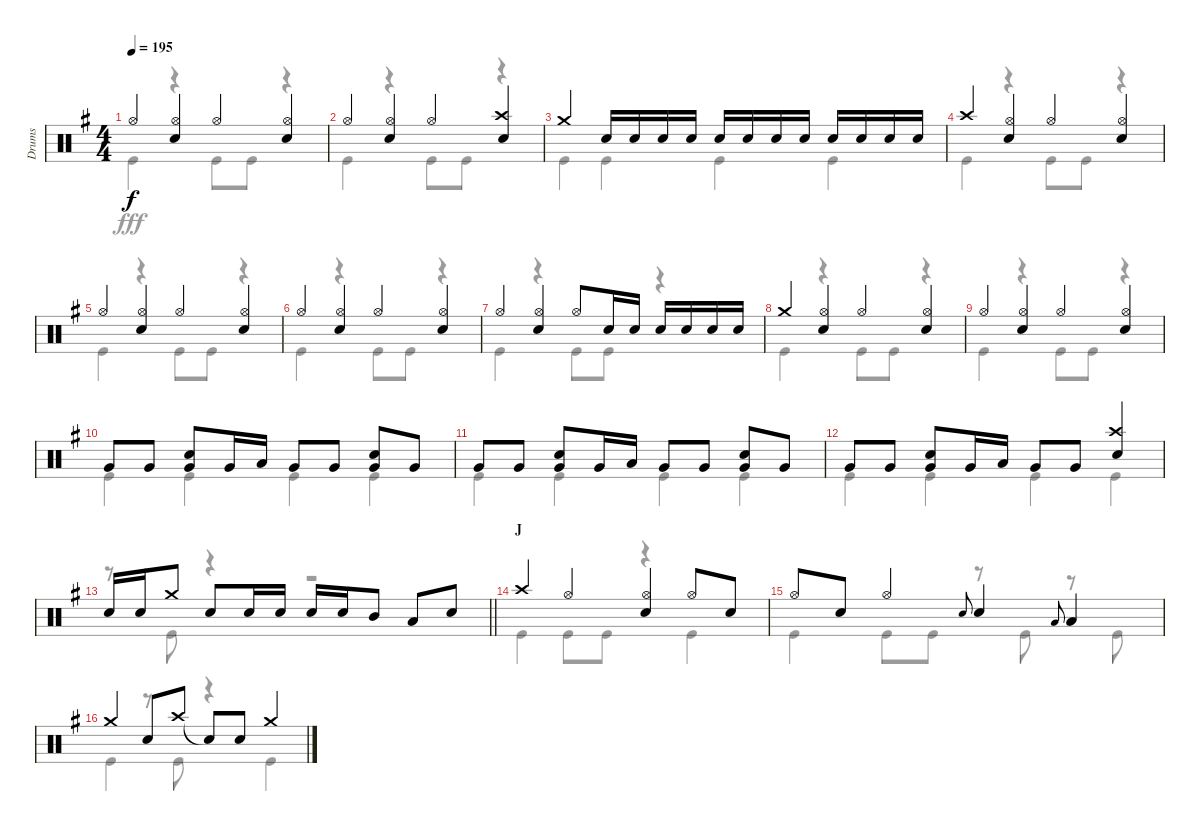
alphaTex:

\track ("Drums" "Drums") {instrument percussion}
\staff {score}
\articulation defaults
\voice
\ts (4 4)
\tempo 195
\clef neutral
\ks g "Hi-Hat (open)".4{dy f}
("Hi-Hat (open)" "Snare (hit) 2").4 "Hi-Hat (open)".4 ("Hi-Hat (open)" "Snare (hit) 2").4 |
"Hi-Hat (open)".4 ("Hi-Hat (open)" "Snare (hit) 2").4 "Hi-Hat (open)".4 ("Crash high (hit)" "Snare (hit) 2").4 |
"Crash medium (hit)".4 "Snare (hit) 2".16 "Snare (hit) 2".16 "Snare (hit) 2".16 "Snare (hit) 2".16 "Snare (hit) 2".16 "Snare (hit) 2".16 "Snare (hit) 2".16 "Snare (hit) 2".16 "Snare (hit) 2".16 "Snare (hit) 2".16 "Snare (hit) 2".16 "Snare (hit) 2".16 |
"Crash high (hit)".4 ("Hi-Hat (open)" "Snare (hit) 2").4 "Hi-Hat (open)".4 ("Hi-Hat (open)" "Snare (hit) 2").4 |
"Hi-Hat (open)".4 ("Hi-Hat (open)" "Snare (hit) 2").4 "Hi-Hat (open)".4 ("Hi-Hat (open)" "Snare (hit) 2").4 |
"Hi-Hat (open)".4 ("Hi-Hat (open)" "Snare (hit) 2").4 "Hi-Hat (open)".4 ("Hi-Hat (open)" "Snare (hit) 2").4 |
"Hi-Hat (open)".4 ("Hi-Hat (open)" "Snare (hit) 2").4 "Hi-Hat (open)".8 "Snare (hit) 2".16 "Snare (hit) 2".16 "Snare (hit) 2".16 "Snare (hit) 2".16 "Snare (hit) 2".16 "Snare (hit) 2".16 |
"Crash medium (hit)".4 ("Hi-Hat (open)" "Snare (hit) 2").4 "Hi-Hat (open)".4 ("Hi-Hat (open)" "Snare (hit) 2").4 |
"Hi-Hat (open)".4 ("Hi-Hat (open)" "Snare (hit) 2").4 "Hi-Hat (open)".4 ("Hi-Hat (open)" "Snare (hit) 2").4 |
"Very Low Tom (hit)".8 "Very Low Tom (hit)".8 ("Snare (hit) 2" "Very Low Tom (hit)").8 "Very Low Tom (hit)".16 "Low Tom (hit)".16 "Very Low Tom (hit)".8 "Very Low Tom (hit)".8 ("Snare (hit) 2" "Very Low Tom (hit)").8 "Very Low Tom (hit)".8 |
"Very Low Tom (hit)".8 "Very Low Tom (hit)".8 ("Snare (hit) 2" "Very Low Tom (hit)").8 "Very Low Tom (hit)".16 "Low Tom (hit)".16 "Very Low Tom (hit)".8 "Very Low Tom (hit)".8 ("Snare (hit) 2" "Very Low Tom (hit)").8 "Very Low Tom (hit)".8 |
"Very Low Tom (hit)".8 "Very Low Tom (hit)".8 ("Snare (hit) 2" "Very Low Tom (hit)").8 "Very Low Tom (hit)".16 "Low Tom (hit)".16 "Very Low Tom (hit)".8 "Very Low Tom (hit)".8 ("Crash high (hit)" "Snare (hit) 2").4 |
\barLineRight lightlight "Snare (hit) 2".16 "Snare (hit) 2".16 "Crash medium (hit)".8 "Snare (hit) 2".8 "Snare (hit) 2".16 "Snare (hit) 2".16 "Snare (hit) 2".16 "Snare (hit) 2".16 "Mid Tom (hit)".8 "Low Tom (hit)".8 "Snare (hit) 2".8
|
\section ("" "J")
"Crash high (hit)".4 "Hi-Hat (open)".4 ("Hi-Hat (open)" "Snare (hit) 2").4 "Hi-Hat (open)".8 "Snare (hit) 2".8 |
"Hi-Hat (open)".8 "Snare (hit) 2".8 "Hi-Hat (open)".4 "Snare (hit) 2".8{gr onbeat} "Snare (hit) 2".4 "Low Tom (hit)".8{gr onbeat} "Low Tom (hit)".4 |
"Crash medium (hit)".4 "Snare (hit) 2".8 "Crash high (hit)".8 "Snare (hit)"{t}.8 "Snare (hit) 2".8 "Crash medium (hit)".4
\voice
\clef neutral
\ottava regular
\simile none
\ks g "Kick (hit)".4{dy fff}
r.4 "Kick (hit)".8 "Kick (hit)".8 r.4 |
"Kick (hit)".4 r.4 "Kick (hit)".8 "Kick (hit)".8 r.4 |
"Kick (hit)".4 "Kick (hit)".4 "Kick (hit)".4 "Kick (hit)".4 |
"Kick (hit)".4 r.4 "Kick (hit)".8 "Kick (hit)".8 r.4 |
"Kick (hit)".4 r.4 "Kick (hit)".8 "Kick (hit)".8 r.4 |
"Kick (hit)".4 r.4 "Kick (hit)".8 "Kick (hit)".8 r.4 |
"Kick (hit)".4 r.4 "Kick (hit)".8 "Kick (hit)".8 r.4 |
"Kick (hit)".4 r.4 "Kick (hit)".8 "Kick (hit)".8 r.4 |
"Kick (hit)".4 r.4 "Kick (hit)".8 "Kick (hit)".8 r.4 |
"Kick (hit)".4 "Kick (hit)".4 "Kick (hit)".4 "Kick (hit)".4 |
"Kick (hit)".4 "Kick (hit)".4 "Kick (hit)".4 "Kick (hit)".4 |
"Kick (hit)".4 "Kick (hit)".4 "Kick (hit)".4 "Kick (hit)".4 |
\barLineRight lightlight
r.8 "Kick (hit)".8 r.4 r.2 |
"Kick (hit)".4 "Kick (hit)".8 "Kick (hit)".8 r.4 "Kick (hit)".4 |
"Kick (hit)".4 "Kick (hit)".8 "Kick (hit)".8 r.8 "Kick (hit)".8 r.8 "Kick (hit)".8 |
"Kick (hit)".4 r.8 "Kick (hit)".8 r.4 "Kick (hit)".4
